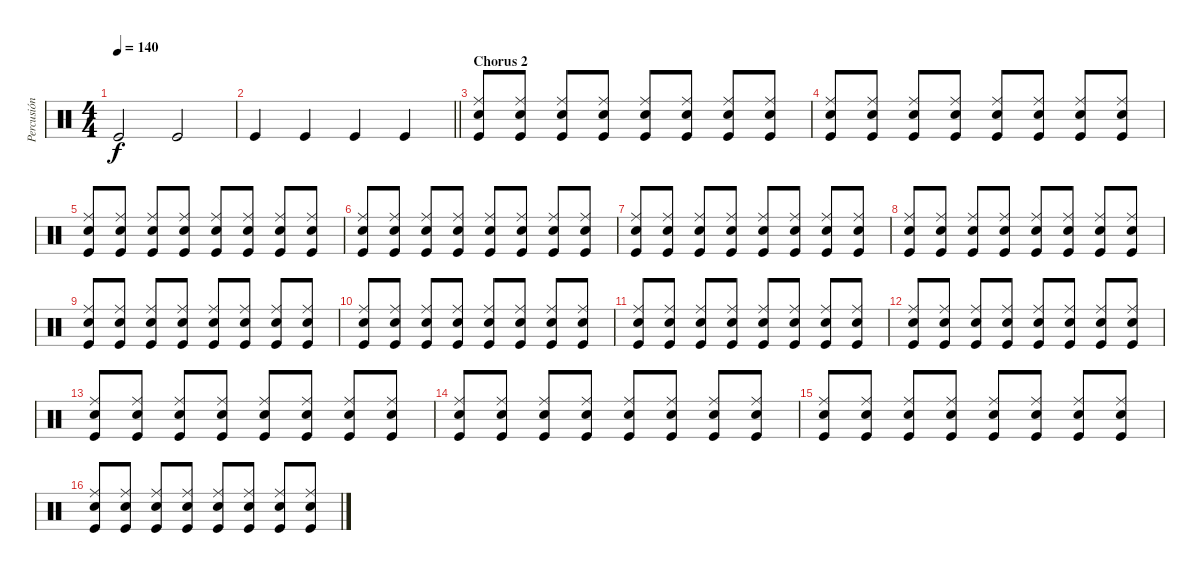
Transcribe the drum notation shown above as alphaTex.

\track ("Percusión" "Percusión") {instrument percussion}
\staff {score}
\articulation defaults
\ts (4 4)
\tempo 140
\clef neutral
\ks c "Kick (hit)".2{dy f} "Kick (hit)".2
|
\barLineRight lightlight "Kick (hit)".4 "Kick (hit)".4 "Kick (hit)".4 "Kick (hit)".4
|
\section ("" "Chorus 2")
("Kick (hit)" "Ride (middle)" "Snare (hit) 2").8 ("Kick (hit)" "Ride (middle)" "Snare (hit) 2").8 ("Kick (hit)" "Ride (middle)" "Snare (hit) 2").8 ("Kick (hit)" "Ride (middle)" "Snare (hit) 2").8 ("Kick (hit)" "Ride (middle)" "Snare (hit) 2").8 ("Kick (hit)" "Ride (middle)" "Snare (hit) 2").8 ("Kick (hit)" "Ride (middle)" "Snare (hit) 2").8 ("Kick (hit)" "Ride (middle)" "Snare (hit) 2").8 |
("Kick (hit)" "Ride (middle)" "Snare (hit) 2").8 ("Kick (hit)" "Ride (middle)" "Snare (hit) 2").8 ("Kick (hit)" "Ride (middle)" "Snare (hit) 2").8 ("Kick (hit)" "Ride (middle)" "Snare (hit) 2").8 ("Kick (hit)" "Ride (middle)" "Snare (hit) 2").8 ("Kick (hit)" "Ride (middle)" "Snare (hit) 2").8 ("Kick (hit)" "Ride (middle)" "Snare (hit) 2").8 ("Kick (hit)" "Ride (middle)" "Snare (hit) 2").8 |
("Kick (hit)" "Ride (middle)" "Snare (hit) 2").8 ("Kick (hit)" "Ride (middle)" "Snare (hit) 2").8 ("Kick (hit)" "Ride (middle)" "Snare (hit) 2").8 ("Kick (hit)" "Ride (middle)" "Snare (hit) 2").8 ("Kick (hit)" "Ride (middle)" "Snare (hit) 2").8 ("Kick (hit)" "Ride (middle)" "Snare (hit) 2").8 ("Kick (hit)" "Ride (middle)" "Snare (hit) 2").8 ("Kick (hit)" "Ride (middle)" "Snare (hit) 2").8 |
("Kick (hit)" "Ride (middle)" "Snare (hit) 2").8 ("Kick (hit)" "Ride (middle)" "Snare (hit) 2").8 ("Kick (hit)" "Ride (middle)" "Snare (hit) 2").8 ("Kick (hit)" "Ride (middle)" "Snare (hit) 2").8 ("Kick (hit)" "Ride (middle)" "Snare (hit) 2").8 ("Kick (hit)" "Ride (middle)" "Snare (hit) 2").8 ("Kick (hit)" "Ride (middle)" "Snare (hit) 2").8 ("Kick (hit)" "Ride (middle)" "Snare (hit) 2").8 |
("Kick (hit)" "Ride (middle)" "Snare (hit) 2").8 ("Kick (hit)" "Ride (middle)" "Snare (hit) 2").8 ("Kick (hit)" "Ride (middle)" "Snare (hit) 2").8 ("Kick (hit)" "Ride (middle)" "Snare (hit) 2").8 ("Kick (hit)" "Ride (middle)" "Snare (hit) 2").8 ("Kick (hit)" "Ride (middle)" "Snare (hit) 2").8 ("Kick (hit)" "Ride (middle)" "Snare (hit) 2").8 ("Kick (hit)" "Ride (middle)" "Snare (hit) 2").8 |
("Kick (hit)" "Ride (middle)" "Snare (hit) 2").8 ("Kick (hit)" "Ride (middle)" "Snare (hit) 2").8 ("Kick (hit)" "Ride (middle)" "Snare (hit) 2").8 ("Kick (hit)" "Ride (middle)" "Snare (hit) 2").8 ("Kick (hit)" "Ride (middle)" "Snare (hit) 2").8 ("Kick (hit)" "Ride (middle)" "Snare (hit) 2").8 ("Kick (hit)" "Ride (middle)" "Snare (hit) 2").8 ("Kick (hit)" "Ride (middle)" "Snare (hit) 2").8 |
("Kick (hit)" "Ride (middle)" "Snare (hit) 2").8 ("Kick (hit)" "Ride (middle)" "Snare (hit) 2").8 ("Kick (hit)" "Ride (middle)" "Snare (hit) 2").8 ("Kick (hit)" "Ride (middle)" "Snare (hit) 2").8 ("Kick (hit)" "Ride (middle)" "Snare (hit) 2").8 ("Kick (hit)" "Ride (middle)" "Snare (hit) 2").8 ("Kick (hit)" "Ride (middle)" "Snare (hit) 2").8 ("Kick (hit)" "Ride (middle)" "Snare (hit) 2").8 |
("Kick (hit)" "Ride (middle)" "Snare (hit) 2").8 ("Kick (hit)" "Ride (middle)" "Snare (hit) 2").8 ("Kick (hit)" "Ride (middle)" "Snare (hit) 2").8 ("Kick (hit)" "Ride (middle)" "Snare (hit) 2").8 ("Kick (hit)" "Ride (middle)" "Snare (hit) 2").8 ("Kick (hit)" "Ride (middle)" "Snare (hit) 2").8 ("Kick (hit)" "Ride (middle)" "Snare (hit) 2").8 ("Kick (hit)" "Ride (middle)" "Snare (hit) 2").8 |
("Kick (hit)" "Ride (middle)" "Snare (hit) 2").8 ("Kick (hit)" "Ride (middle)" "Snare (hit) 2").8 ("Kick (hit)" "Ride (middle)" "Snare (hit) 2").8 ("Kick (hit)" "Ride (middle)" "Snare (hit) 2").8 ("Kick (hit)" "Ride (middle)" "Snare (hit) 2").8 ("Kick (hit)" "Ride (middle)" "Snare (hit) 2").8 ("Kick (hit)" "Ride (middle)" "Snare (hit) 2").8 ("Kick (hit)" "Ride (middle)" "Snare (hit) 2").8 |
("Kick (hit)" "Ride (middle)" "Snare (hit) 2").8 ("Kick (hit)" "Ride (middle)" "Snare (hit) 2").8 ("Kick (hit)" "Ride (middle)" "Snare (hit) 2").8 ("Kick (hit)" "Ride (middle)" "Snare (hit) 2").8 ("Kick (hit)" "Ride (middle)" "Snare (hit) 2").8 ("Kick (hit)" "Ride (middle)" "Snare (hit) 2").8 ("Kick (hit)" "Ride (middle)" "Snare (hit) 2").8 ("Kick (hit)" "Ride (middle)" "Snare (hit) 2").8 |
("Kick (hit)" "Ride (middle)" "Snare (hit) 2").8 ("Kick (hit)" "Ride (middle)" "Snare (hit) 2").8 ("Kick (hit)" "Ride (middle)" "Snare (hit) 2").8 ("Kick (hit)" "Ride (middle)" "Snare (hit) 2").8 ("Kick (hit)" "Ride (middle)" "Snare (hit) 2").8 ("Kick (hit)" "Ride (middle)" "Snare (hit) 2").8 ("Kick (hit)" "Ride (middle)" "Snare (hit) 2").8 ("Kick (hit)" "Ride (middle)" "Snare (hit) 2").8 |
("Kick (hit)" "Ride (middle)" "Snare (hit) 2").8 ("Kick (hit)" "Ride (middle)" "Snare (hit) 2").8 ("Kick (hit)" "Ride (middle)" "Snare (hit) 2").8 ("Kick (hit)" "Ride (middle)" "Snare (hit) 2").8 ("Kick (hit)" "Ride (middle)" "Snare (hit) 2").8 ("Kick (hit)" "Ride (middle)" "Snare (hit) 2").8 ("Kick (hit)" "Ride (middle)" "Snare (hit) 2").8 ("Kick (hit)" "Ride (middle)" "Snare (hit) 2").8 |
("Kick (hit)" "Ride (middle)" "Snare (hit) 2").8 ("Kick (hit)" "Ride (middle)" "Snare (hit) 2").8 ("Kick (hit)" "Ride (middle)" "Snare (hit) 2").8 ("Kick (hit)" "Ride (middle)" "Snare (hit) 2").8 ("Kick (hit)" "Ride (middle)" "Snare (hit) 2").8 ("Kick (hit)" "Ride (middle)" "Snare (hit) 2").8 ("Kick (hit)" "Ride (middle)" "Snare (hit) 2").8 ("Kick (hit)" "Ride (middle)" "Snare (hit) 2").8 |
("Kick (hit)" "Ride (middle)" "Snare (hit) 2").8 ("Kick (hit)" "Ride (middle)" "Snare (hit) 2").8 ("Kick (hit)" "Ride (middle)" "Snare (hit) 2").8 ("Kick (hit)" "Ride (middle)" "Snare (hit) 2").8 ("Kick (hit)" "Ride (middle)" "Snare (hit) 2").8 ("Kick (hit)" "Ride (middle)" "Snare (hit) 2").8 ("Kick (hit)" "Ride (middle)" "Snare (hit) 2").8 ("Kick (hit)" "Ride (middle)" "Snare (hit) 2").8
